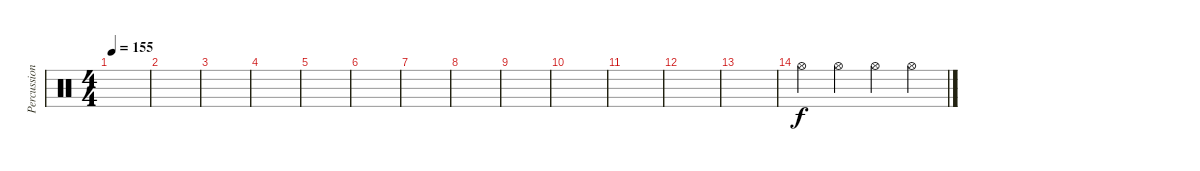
\track ("Percussion" "Percussion") {instrument percussion}
\staff {score}
\articulation defaults
\ts (4 4)
\tempo 155
\clef neutral
\ks c
|
|
|
|
|
|
|
|
|
|
|
|
|
"Hi-Hat (open)".4 "Hi-Hat (open)".4 "Hi-Hat (open)".4 "Hi-Hat (open)".4
